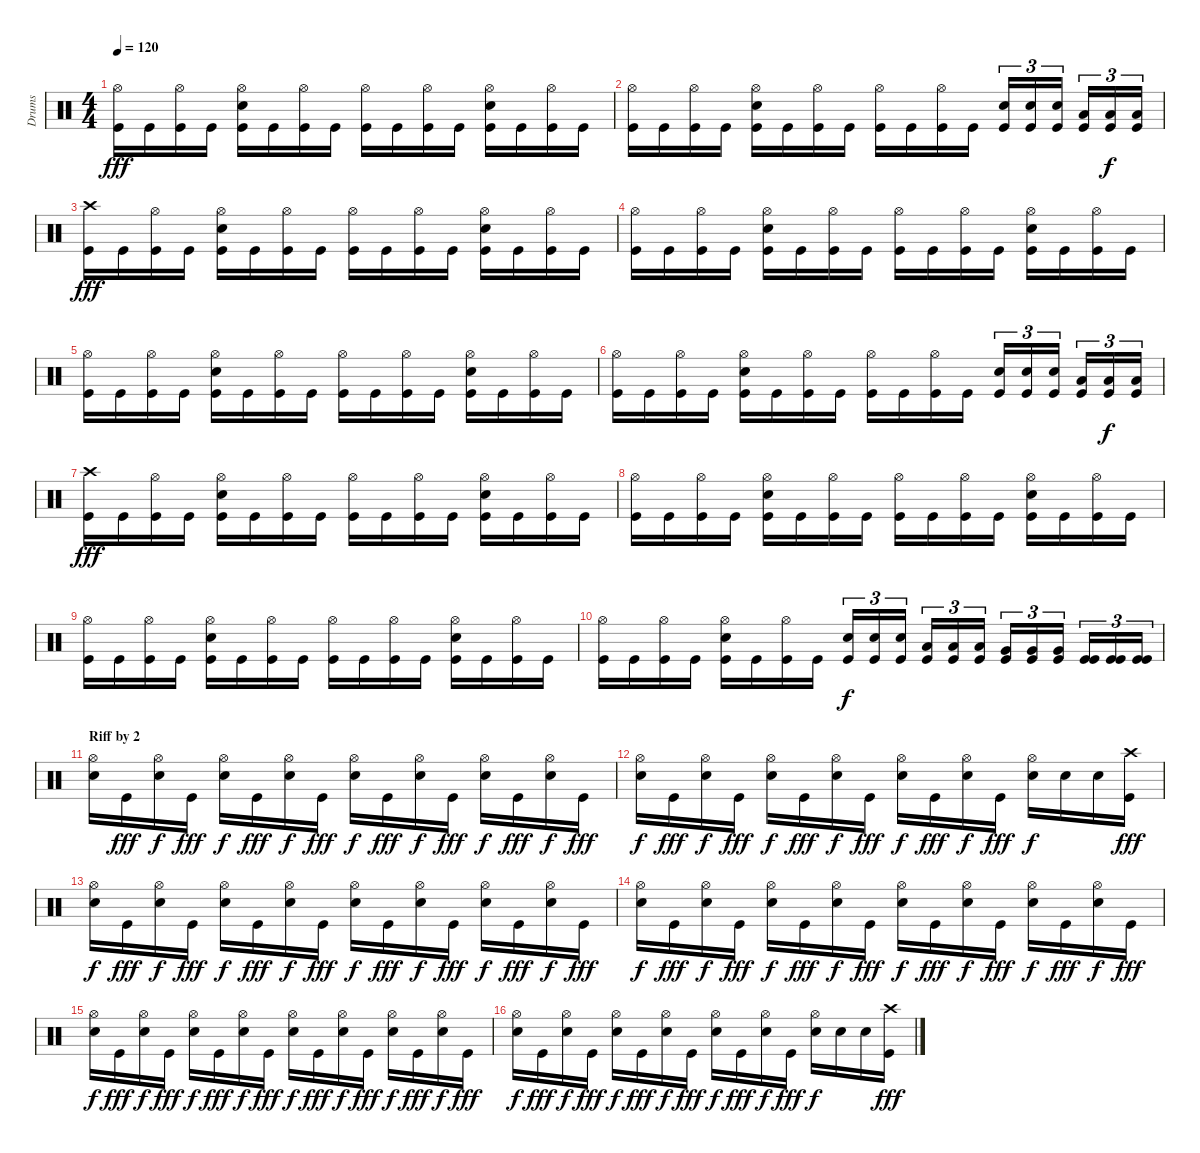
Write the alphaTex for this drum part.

\track ("Drums" "Drums") {instrument percussion}
\staff {score}
\articulation defaults
\ts (4 4)
\tempo 120
\clef neutral
\ks c
("Hi-Hat (open)" "Kick (hit)").16{dy fff} "Kick (hit)".16 ("Hi-Hat (open)" "Kick (hit)").16 "Kick (hit)".16 ("Hi-Hat (open)" "Electric Snare (hit)" "Kick (hit)").16 "Kick (hit)".16 ("Hi-Hat (open)" "Kick (hit)").16 "Kick (hit)".16 ("Hi-Hat (open)" "Kick (hit)").16 "Kick (hit)".16 ("Hi-Hat (open)" "Kick (hit)").16 "Kick (hit)".16 ("Hi-Hat (open)" "Electric Snare (hit)" "Kick (hit)").16 "Kick (hit)".16 ("Hi-Hat (open)" "Kick (hit)").16 "Kick (hit)".16 |
("Hi-Hat (open)" "Kick (hit)").16 "Kick (hit)".16 ("Hi-Hat (open)" "Kick (hit)").16 "Kick (hit)".16 ("Hi-Hat (open)" "Electric Snare (hit)" "Kick (hit)").16 "Kick (hit)".16 ("Hi-Hat (open)" "Kick (hit)").16 "Kick (hit)".16 ("Hi-Hat (open)" "Kick (hit)").16 "Kick (hit)".16 ("Hi-Hat (open)" "Kick (hit)").16 "Kick (hit)".16 ("Electric Snare (hit)" "Kick (hit)").16{tu (3 2)} ("Electric Snare (hit)" "Kick (hit)").16{tu (3 2)} ("Electric Snare (hit)" "Kick (hit)").16{tu (3 2)} ("Low Tom (hit)" "Kick (hit)").16{tu (3 2)} ("Low Tom (hit)" "Kick (hit)").16{tu (3 2) dy f} ("Low Tom (hit)" "Kick (hit)").16{tu (3 2)} |
("Crash high (hit)" "Kick (hit)").16{dy fff} "Kick (hit)".16 ("Hi-Hat (open)" "Kick (hit)").16 "Kick (hit)".16 ("Hi-Hat (open)" "Electric Snare (hit)" "Kick (hit)").16 "Kick (hit)".16 ("Hi-Hat (open)" "Kick (hit)").16 "Kick (hit)".16 ("Hi-Hat (open)" "Kick (hit)").16 "Kick (hit)".16 ("Hi-Hat (open)" "Kick (hit)").16 "Kick (hit)".16 ("Hi-Hat (open)" "Electric Snare (hit)" "Kick (hit)").16 "Kick (hit)".16 ("Hi-Hat (open)" "Kick (hit)").16 "Kick (hit)".16 |
("Hi-Hat (open)" "Kick (hit)").16 "Kick (hit)".16 ("Hi-Hat (open)" "Kick (hit)").16 "Kick (hit)".16 ("Hi-Hat (open)" "Electric Snare (hit)" "Kick (hit)").16 "Kick (hit)".16 ("Hi-Hat (open)" "Kick (hit)").16 "Kick (hit)".16 ("Hi-Hat (open)" "Kick (hit)").16 "Kick (hit)".16 ("Hi-Hat (open)" "Kick (hit)").16 "Kick (hit)".16 ("Hi-Hat (open)" "Electric Snare (hit)" "Kick (hit)").16 "Kick (hit)".16 ("Hi-Hat (open)" "Kick (hit)").16 "Kick (hit)".16 |
("Hi-Hat (open)" "Kick (hit)").16 "Kick (hit)".16 ("Hi-Hat (open)" "Kick (hit)").16 "Kick (hit)".16 ("Hi-Hat (open)" "Electric Snare (hit)" "Kick (hit)").16 "Kick (hit)".16 ("Hi-Hat (open)" "Kick (hit)").16 "Kick (hit)".16 ("Hi-Hat (open)" "Kick (hit)").16 "Kick (hit)".16 ("Hi-Hat (open)" "Kick (hit)").16 "Kick (hit)".16 ("Hi-Hat (open)" "Electric Snare (hit)" "Kick (hit)").16 "Kick (hit)".16 ("Hi-Hat (open)" "Kick (hit)").16 "Kick (hit)".16 |
("Hi-Hat (open)" "Kick (hit)").16 "Kick (hit)".16 ("Hi-Hat (open)" "Kick (hit)").16 "Kick (hit)".16 ("Hi-Hat (open)" "Electric Snare (hit)" "Kick (hit)").16 "Kick (hit)".16 ("Hi-Hat (open)" "Kick (hit)").16 "Kick (hit)".16 ("Hi-Hat (open)" "Kick (hit)").16 "Kick (hit)".16 ("Hi-Hat (open)" "Kick (hit)").16 "Kick (hit)".16 ("Electric Snare (hit)" "Kick (hit)").16{tu (3 2)} ("Electric Snare (hit)" "Kick (hit)").16{tu (3 2)} ("Electric Snare (hit)" "Kick (hit)").16{tu (3 2)} ("Low Tom (hit)" "Kick (hit)").16{tu (3 2)} ("Low Tom (hit)" "Kick (hit)").16{tu (3 2) dy f} ("Low Tom (hit)" "Kick (hit)").16{tu (3 2)} |
("Crash high (hit)" "Kick (hit)").16{dy fff} "Kick (hit)".16 ("Hi-Hat (open)" "Kick (hit)").16 "Kick (hit)".16 ("Hi-Hat (open)" "Electric Snare (hit)" "Kick (hit)").16 "Kick (hit)".16 ("Hi-Hat (open)" "Kick (hit)").16 "Kick (hit)".16 ("Hi-Hat (open)" "Kick (hit)").16 "Kick (hit)".16 ("Hi-Hat (open)" "Kick (hit)").16 "Kick (hit)".16 ("Hi-Hat (open)" "Electric Snare (hit)" "Kick (hit)").16 "Kick (hit)".16 ("Hi-Hat (open)" "Kick (hit)").16 "Kick (hit)".16 |
("Hi-Hat (open)" "Kick (hit)").16 "Kick (hit)".16 ("Hi-Hat (open)" "Kick (hit)").16 "Kick (hit)".16 ("Hi-Hat (open)" "Electric Snare (hit)" "Kick (hit)").16 "Kick (hit)".16 ("Hi-Hat (open)" "Kick (hit)").16 "Kick (hit)".16 ("Hi-Hat (open)" "Kick (hit)").16 "Kick (hit)".16 ("Hi-Hat (open)" "Kick (hit)").16 "Kick (hit)".16 ("Hi-Hat (open)" "Electric Snare (hit)" "Kick (hit)").16 "Kick (hit)".16 ("Hi-Hat (open)" "Kick (hit)").16 "Kick (hit)".16 |
("Hi-Hat (open)" "Kick (hit)").16 "Kick (hit)".16 ("Hi-Hat (open)" "Kick (hit)").16 "Kick (hit)".16 ("Hi-Hat (open)" "Electric Snare (hit)" "Kick (hit)").16 "Kick (hit)".16 ("Hi-Hat (open)" "Kick (hit)").16 "Kick (hit)".16 ("Hi-Hat (open)" "Kick (hit)").16 "Kick (hit)".16 ("Hi-Hat (open)" "Kick (hit)").16 "Kick (hit)".16 ("Hi-Hat (open)" "Electric Snare (hit)" "Kick (hit)").16 "Kick (hit)".16 ("Hi-Hat (open)" "Kick (hit)").16 "Kick (hit)".16 |
("Hi-Hat (open)" "Kick (hit)").16 "Kick (hit)".16 ("Hi-Hat (open)" "Kick (hit)").16 "Kick (hit)".16 ("Hi-Hat (open)" "Electric Snare (hit)" "Kick (hit)").16 "Kick (hit)".16 ("Hi-Hat (open)" "Kick (hit)").16 "Kick (hit)".16 ("Electric Snare (hit)" "Kick (hit)").16{tu (3 2) dy f} ("Electric Snare (hit)" "Kick (hit)").16{tu (3 2)} ("Electric Snare (hit)" "Kick (hit)").16{tu (3 2)} ("Low Tom (hit)" "Kick (hit)").16{tu (3 2)} ("Low Tom (hit)" "Kick (hit)").16{tu (3 2)} ("Low Tom (hit)" "Kick (hit)").16{tu (3 2)} ("Very Low Tom (hit)" "Kick (hit)").16{tu (3 2)} ("Very Low Tom (hit)" "Kick (hit)").16{tu (3 2)} ("Very Low Tom (hit)" "Kick (hit)").16{tu (3 2)} ("Kick (hit)" "Kick (hit)").16{tu (3 2)} ("Kick (hit)" "Kick (hit)").16{tu (3 2)} ("Kick (hit)" "Kick (hit)").16{tu (3 2)} |
\section ("" "Riff by 2")
("Hi-Hat (open)" "Electric Snare (hit)").16 "Kick (hit)".16{dy fff} ("Hi-Hat (open)" "Electric Snare (hit)").16{dy f} "Kick (hit)".16{dy fff} ("Hi-Hat (open)" "Electric Snare (hit)").16{dy f} "Kick (hit)".16{dy fff} ("Hi-Hat (open)" "Electric Snare (hit)").16{dy f} "Kick (hit)".16{dy fff} ("Hi-Hat (open)" "Electric Snare (hit)").16{dy f} "Kick (hit)".16{dy fff} ("Hi-Hat (open)" "Electric Snare (hit)").16{dy f} "Kick (hit)".16{dy fff} ("Hi-Hat (open)" "Electric Snare (hit)").16{dy f} "Kick (hit)".16{dy fff} ("Hi-Hat (open)" "Electric Snare (hit)").16{dy f} "Kick (hit)".16{dy fff} |
("Hi-Hat (open)" "Electric Snare (hit)").16{dy f} "Kick (hit)".16{dy fff} ("Hi-Hat (open)" "Electric Snare (hit)").16{dy f} "Kick (hit)".16{dy fff} ("Hi-Hat (open)" "Electric Snare (hit)").16{dy f} "Kick (hit)".16{dy fff} ("Hi-Hat (open)" "Electric Snare (hit)").16{dy f} "Kick (hit)".16{dy fff} ("Hi-Hat (open)" "Electric Snare (hit)").16{dy f} "Kick (hit)".16{dy fff} ("Hi-Hat (open)" "Electric Snare (hit)").16{dy f} "Kick (hit)".16{dy fff} ("Hi-Hat (open)" "Electric Snare (hit)").16{dy f} "Electric Snare (hit)".16 "Electric Snare (hit)".16 ("Crash high (hit)" "Kick (hit)").16{dy fff} |
("Hi-Hat (open)" "Electric Snare (hit)").16{dy f} "Kick (hit)".16{dy fff} ("Hi-Hat (open)" "Electric Snare (hit)").16{dy f} "Kick (hit)".16{dy fff} ("Hi-Hat (open)" "Electric Snare (hit)").16{dy f} "Kick (hit)".16{dy fff} ("Hi-Hat (open)" "Electric Snare (hit)").16{dy f} "Kick (hit)".16{dy fff} ("Hi-Hat (open)" "Electric Snare (hit)").16{dy f} "Kick (hit)".16{dy fff} ("Hi-Hat (open)" "Electric Snare (hit)").16{dy f} "Kick (hit)".16{dy fff} ("Hi-Hat (open)" "Electric Snare (hit)").16{dy f} "Kick (hit)".16{dy fff} ("Hi-Hat (open)" "Electric Snare (hit)").16{dy f} "Kick (hit)".16{dy fff} |
("Hi-Hat (open)" "Electric Snare (hit)").16{dy f} "Kick (hit)".16{dy fff} ("Hi-Hat (open)" "Electric Snare (hit)").16{dy f} "Kick (hit)".16{dy fff} ("Hi-Hat (open)" "Electric Snare (hit)").16{dy f} "Kick (hit)".16{dy fff} ("Hi-Hat (open)" "Electric Snare (hit)").16{dy f} "Kick (hit)".16{dy fff} ("Hi-Hat (open)" "Electric Snare (hit)").16{dy f} "Kick (hit)".16{dy fff} ("Hi-Hat (open)" "Electric Snare (hit)").16{dy f} "Kick (hit)".16{dy fff} ("Hi-Hat (open)" "Electric Snare (hit)").16{dy f} "Kick (hit)".16{dy fff} ("Hi-Hat (open)" "Electric Snare (hit)").16{dy f} "Kick (hit)".16{dy fff} |
("Hi-Hat (open)" "Electric Snare (hit)").16{dy f} "Kick (hit)".16{dy fff} ("Hi-Hat (open)" "Electric Snare (hit)").16{dy f} "Kick (hit)".16{dy fff} ("Hi-Hat (open)" "Electric Snare (hit)").16{dy f} "Kick (hit)".16{dy fff} ("Hi-Hat (open)" "Electric Snare (hit)").16{dy f} "Kick (hit)".16{dy fff} ("Hi-Hat (open)" "Electric Snare (hit)").16{dy f} "Kick (hit)".16{dy fff} ("Hi-Hat (open)" "Electric Snare (hit)").16{dy f} "Kick (hit)".16{dy fff} ("Hi-Hat (open)" "Electric Snare (hit)").16{dy f} "Kick (hit)".16{dy fff} ("Hi-Hat (open)" "Electric Snare (hit)").16{dy f} "Kick (hit)".16{dy fff} |
("Hi-Hat (open)" "Electric Snare (hit)").16{dy f} "Kick (hit)".16{dy fff} ("Hi-Hat (open)" "Electric Snare (hit)").16{dy f} "Kick (hit)".16{dy fff} ("Hi-Hat (open)" "Electric Snare (hit)").16{dy f} "Kick (hit)".16{dy fff} ("Hi-Hat (open)" "Electric Snare (hit)").16{dy f} "Kick (hit)".16{dy fff} ("Hi-Hat (open)" "Electric Snare (hit)").16{dy f} "Kick (hit)".16{dy fff} ("Hi-Hat (open)" "Electric Snare (hit)").16{dy f} "Kick (hit)".16{dy fff} ("Hi-Hat (open)" "Electric Snare (hit)").16{dy f} "Electric Snare (hit)".16 "Electric Snare (hit)".16 ("Crash high (hit)" "Kick (hit)").16{dy fff}
